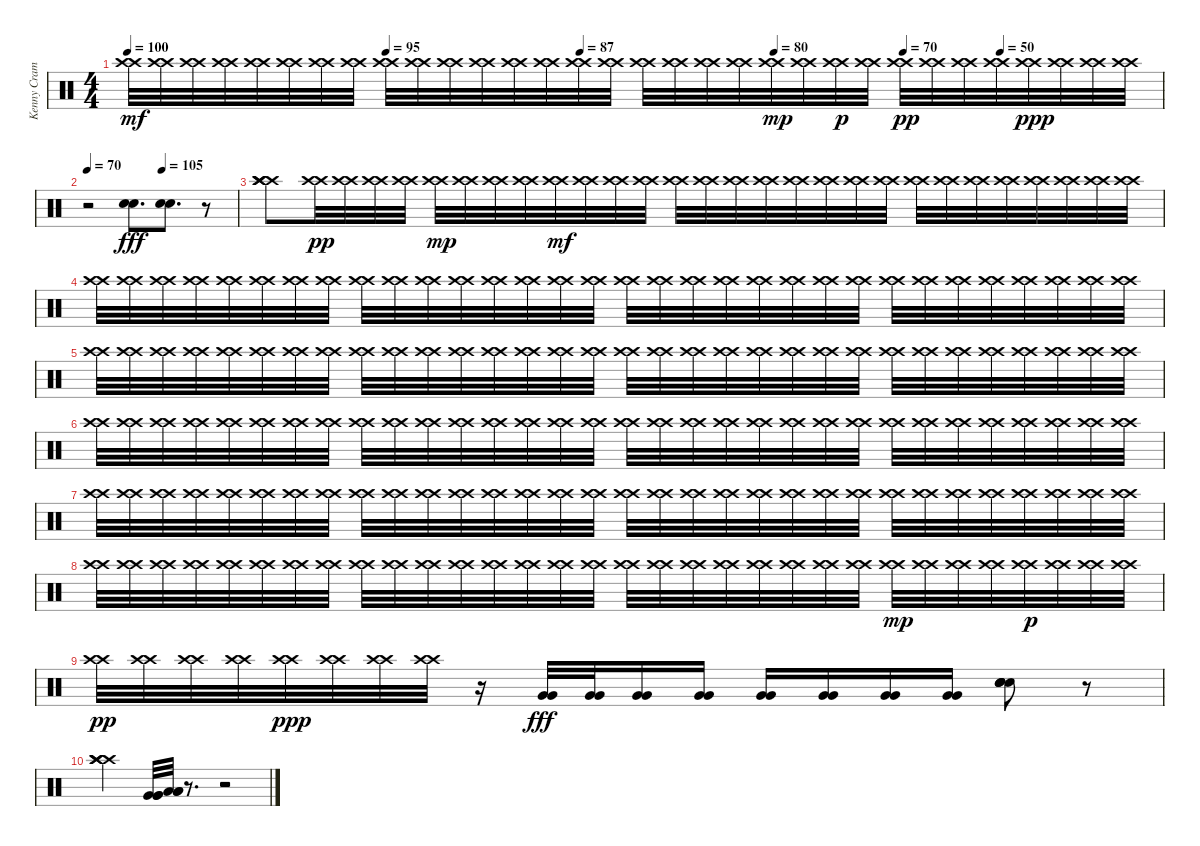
\track ("Kenny Cramme - Drums" "Kenny Cram") {instrument percussion}
\staff {score}
\articulation defaults
\ts (4 4)
\tempo 100
\tempo (95 0.25)
\tempo (87 0.4375)
\tempo (80 0.625)
\tempo (70 0.75)
\tempo (50 0.84375)
\clef neutral
\ks c
("Crash high (hit)" "Crash high (hit)").32{dy mf} ("Crash high (hit)" "Crash high (hit)").32 ("Crash high (hit)" "Crash high (hit)").32 ("Crash high (hit)" "Crash high (hit)").32 ("Crash high (hit)" "Crash high (hit)").32 ("Crash high (hit)" "Crash high (hit)").32 ("Crash high (hit)" "Crash high (hit)").32 ("Crash high (hit)" "Crash high (hit)").32 ("Crash high (hit)" "Crash high (hit)").32 ("Crash high (hit)" "Crash high (hit)").32 ("Crash high (hit)" "Crash high (hit)").32 ("Crash high (hit)" "Crash high (hit)").32 ("Crash high (hit)" "Crash high (hit)").32 ("Crash high (hit)" "Crash high (hit)").32 ("Crash high (hit)" "Crash high (hit)").32 ("Crash high (hit)" "Crash high (hit)").32 ("Crash high (hit)" "Crash high (hit)").32 ("Crash high (hit)" "Crash high (hit)").32 ("Crash high (hit)" "Crash high (hit)").32 ("Crash high (hit)" "Crash high (hit)").32 ("Crash high (hit)" "Crash high (hit)").32{dy mp} ("Crash high (hit)" "Crash high (hit)").32 ("Crash high (hit)" "Crash high (hit)").32{dy p} ("Crash high (hit)" "Crash high (hit)").32 ("Crash high (hit)" "Crash high (hit)").32{dy pp} ("Crash high (hit)" "Crash high (hit)").32 ("Crash high (hit)" "Crash high (hit)").32 ("Crash high (hit)" "Crash high (hit)").32 ("Crash high (hit)" "Crash high (hit)").32{dy ppp} ("Crash high (hit)" "Crash high (hit)").32 ("Crash high (hit)" "Crash high (hit)").32 ("Crash high (hit)" "Crash high (hit)").32 |
\tempo 70
\tempo (105 0.5)
r.2 ("Snare (hit) 2" "Snare (hit) 2").8{d dy fff} ("Snare (hit) 2" "Snare (hit) 2").8{d} r.8 |
("Crash high (hit)" "Crash high (hit)" "Crash high (hit)" "Crash high (hit)").8 ("Crash high (hit)" "Crash high (hit)").32{dy pp} ("Crash high (hit)" "Crash high (hit)").32 ("Crash high (hit)" "Crash high (hit)").32 ("Crash high (hit)" "Crash high (hit)").32 ("Crash high (hit)" "Crash high (hit)").32{dy mp} ("Crash high (hit)" "Crash high (hit)").32 ("Crash high (hit)" "Crash high (hit)").32 ("Crash high (hit)" "Crash high (hit)").32 ("Crash high (hit)" "Crash high (hit)").32{dy mf} ("Crash high (hit)" "Crash high (hit)").32 ("Crash high (hit)" "Crash high (hit)").32 ("Crash high (hit)" "Crash high (hit)").32 ("Crash high (hit)" "Crash high (hit)").32 ("Crash high (hit)" "Crash high (hit)").32 ("Crash high (hit)" "Crash high (hit)").32 ("Crash high (hit)" "Crash high (hit)").32 ("Crash high (hit)" "Crash high (hit)").32 ("Crash high (hit)" "Crash high (hit)").32 ("Crash high (hit)" "Crash high (hit)").32 ("Crash high (hit)" "Crash high (hit)").32 ("Crash high (hit)" "Crash high (hit)").32 ("Crash high (hit)" "Crash high (hit)").32 ("Crash high (hit)" "Crash high (hit)").32 ("Crash high (hit)" "Crash high (hit)").32 ("Crash high (hit)" "Crash high (hit)").32 ("Crash high (hit)" "Crash high (hit)").32 ("Crash high (hit)" "Crash high (hit)").32 ("Crash high (hit)" "Crash high (hit)").32 |
("Crash high (hit)" "Crash high (hit)").32 ("Crash high (hit)" "Crash high (hit)").32 ("Crash high (hit)" "Crash high (hit)").32 ("Crash high (hit)" "Crash high (hit)").32 ("Crash high (hit)" "Crash high (hit)").32 ("Crash high (hit)" "Crash high (hit)").32 ("Crash high (hit)" "Crash high (hit)").32 ("Crash high (hit)" "Crash high (hit)").32 ("Crash high (hit)" "Crash high (hit)").32 ("Crash high (hit)" "Crash high (hit)").32 ("Crash high (hit)" "Crash high (hit)").32 ("Crash high (hit)" "Crash high (hit)").32 ("Crash high (hit)" "Crash high (hit)").32 ("Crash high (hit)" "Crash high (hit)").32 ("Crash high (hit)" "Crash high (hit)").32 ("Crash high (hit)" "Crash high (hit)").32 ("Crash high (hit)" "Crash high (hit)").32 ("Crash high (hit)" "Crash high (hit)").32 ("Crash high (hit)" "Crash high (hit)").32 ("Crash high (hit)" "Crash high (hit)").32 ("Crash high (hit)" "Crash high (hit)").32 ("Crash high (hit)" "Crash high (hit)").32 ("Crash high (hit)" "Crash high (hit)").32 ("Crash high (hit)" "Crash high (hit)").32 ("Crash high (hit)" "Crash high (hit)").32 ("Crash high (hit)" "Crash high (hit)").32 ("Crash high (hit)" "Crash high (hit)").32 ("Crash high (hit)" "Crash high (hit)").32 ("Crash high (hit)" "Crash high (hit)").32 ("Crash high (hit)" "Crash high (hit)").32 ("Crash high (hit)" "Crash high (hit)").32 ("Crash high (hit)" "Crash high (hit)").32 |
("Crash high (hit)" "Crash high (hit)").32 ("Crash high (hit)" "Crash high (hit)").32 ("Crash high (hit)" "Crash high (hit)").32 ("Crash high (hit)" "Crash high (hit)").32 ("Crash high (hit)" "Crash high (hit)").32 ("Crash high (hit)" "Crash high (hit)").32 ("Crash high (hit)" "Crash high (hit)").32 ("Crash high (hit)" "Crash high (hit)").32 ("Crash high (hit)" "Crash high (hit)").32 ("Crash high (hit)" "Crash high (hit)").32 ("Crash high (hit)" "Crash high (hit)").32 ("Crash high (hit)" "Crash high (hit)").32 ("Crash high (hit)" "Crash high (hit)").32 ("Crash high (hit)" "Crash high (hit)").32 ("Crash high (hit)" "Crash high (hit)").32 ("Crash high (hit)" "Crash high (hit)").32 ("Crash high (hit)" "Crash high (hit)").32 ("Crash high (hit)" "Crash high (hit)").32 ("Crash high (hit)" "Crash high (hit)").32 ("Crash high (hit)" "Crash high (hit)").32 ("Crash high (hit)" "Crash high (hit)").32 ("Crash high (hit)" "Crash high (hit)").32 ("Crash high (hit)" "Crash high (hit)").32 ("Crash high (hit)" "Crash high (hit)").32 ("Crash high (hit)" "Crash high (hit)").32 ("Crash high (hit)" "Crash high (hit)").32 ("Crash high (hit)" "Crash high (hit)").32 ("Crash high (hit)" "Crash high (hit)").32 ("Crash high (hit)" "Crash high (hit)").32 ("Crash high (hit)" "Crash high (hit)").32 ("Crash high (hit)" "Crash high (hit)").32 ("Crash high (hit)" "Crash high (hit)").32 |
("Crash high (hit)" "Crash high (hit)").32 ("Crash high (hit)" "Crash high (hit)").32 ("Crash high (hit)" "Crash high (hit)").32 ("Crash high (hit)" "Crash high (hit)").32 ("Crash high (hit)" "Crash high (hit)").32 ("Crash high (hit)" "Crash high (hit)").32 ("Crash high (hit)" "Crash high (hit)").32 ("Crash high (hit)" "Crash high (hit)").32 ("Crash high (hit)" "Crash high (hit)").32 ("Crash high (hit)" "Crash high (hit)").32 ("Crash high (hit)" "Crash high (hit)").32 ("Crash high (hit)" "Crash high (hit)").32 ("Crash high (hit)" "Crash high (hit)").32 ("Crash high (hit)" "Crash high (hit)").32 ("Crash high (hit)" "Crash high (hit)").32 ("Crash high (hit)" "Crash high (hit)").32 ("Crash high (hit)" "Crash high (hit)").32 ("Crash high (hit)" "Crash high (hit)").32 ("Crash high (hit)" "Crash high (hit)").32 ("Crash high (hit)" "Crash high (hit)").32 ("Crash high (hit)" "Crash high (hit)").32 ("Crash high (hit)" "Crash high (hit)").32 ("Crash high (hit)" "Crash high (hit)").32 ("Crash high (hit)" "Crash high (hit)").32 ("Crash high (hit)" "Crash high (hit)").32 ("Crash high (hit)" "Crash high (hit)").32 ("Crash high (hit)" "Crash high (hit)").32 ("Crash high (hit)" "Crash high (hit)").32 ("Crash high (hit)" "Crash high (hit)").32 ("Crash high (hit)" "Crash high (hit)").32 ("Crash high (hit)" "Crash high (hit)").32 ("Crash high (hit)" "Crash high (hit)").32 |
("Crash high (hit)" "Crash high (hit)").32 ("Crash high (hit)" "Crash high (hit)").32 ("Crash high (hit)" "Crash high (hit)").32 ("Crash high (hit)" "Crash high (hit)").32 ("Crash high (hit)" "Crash high (hit)").32 ("Crash high (hit)" "Crash high (hit)").32 ("Crash high (hit)" "Crash high (hit)").32 ("Crash high (hit)" "Crash high (hit)").32 ("Crash high (hit)" "Crash high (hit)").32 ("Crash high (hit)" "Crash high (hit)").32 ("Crash high (hit)" "Crash high (hit)").32 ("Crash high (hit)" "Crash high (hit)").32 ("Crash high (hit)" "Crash high (hit)").32 ("Crash high (hit)" "Crash high (hit)").32 ("Crash high (hit)" "Crash high (hit)").32 ("Crash high (hit)" "Crash high (hit)").32 ("Crash high (hit)" "Crash high (hit)").32 ("Crash high (hit)" "Crash high (hit)").32 ("Crash high (hit)" "Crash high (hit)").32 ("Crash high (hit)" "Crash high (hit)").32 ("Crash high (hit)" "Crash high (hit)").32 ("Crash high (hit)" "Crash high (hit)").32 ("Crash high (hit)" "Crash high (hit)").32 ("Crash high (hit)" "Crash high (hit)").32 ("Crash high (hit)" "Crash high (hit)").32 ("Crash high (hit)" "Crash high (hit)").32 ("Crash high (hit)" "Crash high (hit)").32 ("Crash high (hit)" "Crash high (hit)").32 ("Crash high (hit)" "Crash high (hit)").32 ("Crash high (hit)" "Crash high (hit)").32 ("Crash high (hit)" "Crash high (hit)").32 ("Crash high (hit)" "Crash high (hit)").32 |
("Crash high (hit)" "Crash high (hit)").32 ("Crash high (hit)" "Crash high (hit)").32 ("Crash high (hit)" "Crash high (hit)").32 ("Crash high (hit)" "Crash high (hit)").32 ("Crash high (hit)" "Crash high (hit)").32 ("Crash high (hit)" "Crash high (hit)").32 ("Crash high (hit)" "Crash high (hit)").32 ("Crash high (hit)" "Crash high (hit)").32 ("Crash high (hit)" "Crash high (hit)").32 ("Crash high (hit)" "Crash high (hit)").32 ("Crash high (hit)" "Crash high (hit)").32 ("Crash high (hit)" "Crash high (hit)").32 ("Crash high (hit)" "Crash high (hit)").32 ("Crash high (hit)" "Crash high (hit)").32 ("Crash high (hit)" "Crash high (hit)").32 ("Crash high (hit)" "Crash high (hit)").32 ("Crash high (hit)" "Crash high (hit)").32 ("Crash high (hit)" "Crash high (hit)").32 ("Crash high (hit)" "Crash high (hit)").32 ("Crash high (hit)" "Crash high (hit)").32 ("Crash high (hit)" "Crash high (hit)").32 ("Crash high (hit)" "Crash high (hit)").32 ("Crash high (hit)" "Crash high (hit)").32 ("Crash high (hit)" "Crash high (hit)").32 ("Crash high (hit)" "Crash high (hit)").32{dy mp} ("Crash high (hit)" "Crash high (hit)").32 ("Crash high (hit)" "Crash high (hit)").32 ("Crash high (hit)" "Crash high (hit)").32 ("Crash high (hit)" "Crash high (hit)").32{dy p} ("Crash high (hit)" "Crash high (hit)").32 ("Crash high (hit)" "Crash high (hit)").32 ("Crash high (hit)" "Crash high (hit)").32 |
("Crash high (hit)" "Crash high (hit)").32{dy pp} ("Crash high (hit)" "Crash high (hit)").32 ("Crash high (hit)" "Crash high (hit)").32 ("Crash high (hit)" "Crash high (hit)").32 ("Crash high (hit)" "Crash high (hit)").32{dy ppp} ("Crash high (hit)" "Crash high (hit)").32 ("Crash high (hit)" "Crash high (hit)").32 ("Crash high (hit)" "Crash high (hit)").32 r.16 ("Very Low Tom (hit)" "Very Low Tom (hit)").32{dy fff} ("Very Low Tom (hit)" "Very Low Tom (hit)").32 ("Very Low Tom (hit)" "Very Low Tom (hit)").16 ("Very Low Tom (hit)" "Very Low Tom (hit)").16 ("Very Low Tom (hit)" "Very Low Tom (hit)").16 ("Very Low Tom (hit)" "Very Low Tom (hit)").16 ("Very Low Tom (hit)" "Very Low Tom (hit)").16 ("Very Low Tom (hit)" "Very Low Tom (hit)").16 ("Snare (hit) 2" "Snare (hit) 2" "Snare (hit) 2" "Snare (hit) 2").8 r.8 |
("Crash high (hit)" "Crash high (hit)" "Crash high (hit)" "Crash high (hit)").4 ("Very Low Tom (hit)" "Very Low Tom (hit)" "Very Low Tom (hit)").32 ("Low Floor Tom (hit)" "Low Floor Tom (hit)" "Low Floor Tom (hit)").32 r.8{d} r.2
